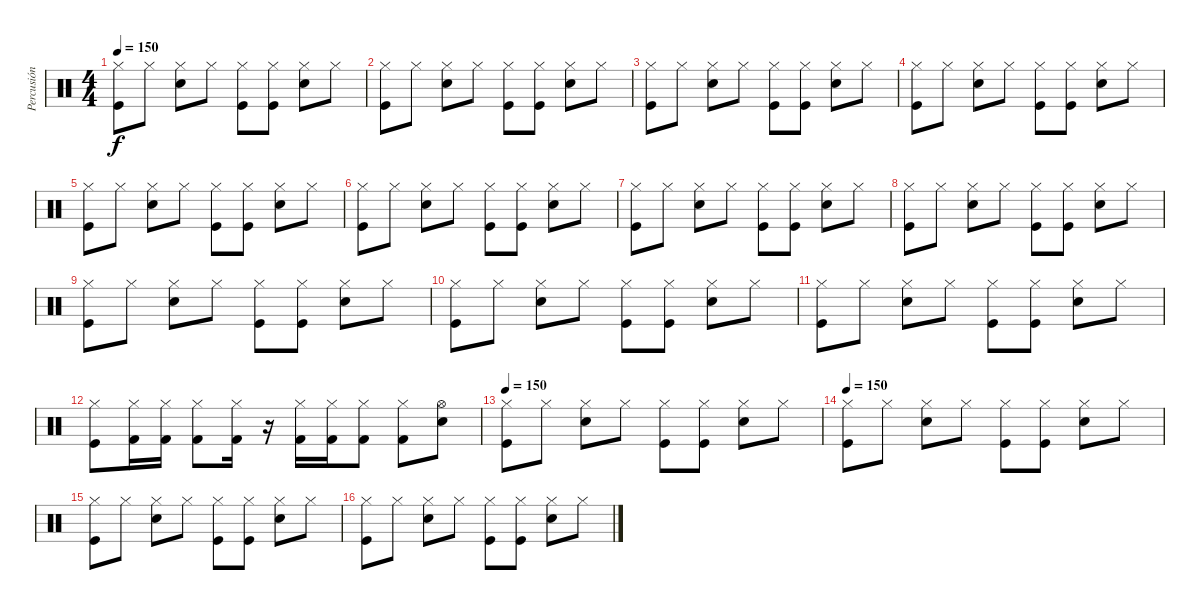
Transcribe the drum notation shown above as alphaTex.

\track ("Percusión" "Percusión") {instrument percussion}
\staff {score}
\articulation defaults
\ts (4 4)
\tempo 150
\clef neutral
\ks c
("Kick (hit)" "Hi-Hat (closed)").8{dy f} "Hi-Hat (closed)".8 ("Snare (hit) 2" "Hi-Hat (closed)").8 "Hi-Hat (closed)".8 ("Kick (hit)" "Hi-Hat (closed)").8 ("Kick (hit)" "Hi-Hat (closed)").8 ("Snare (hit) 2" "Hi-Hat (closed)").8 "Hi-Hat (closed)".8 |
("Kick (hit)" "Hi-Hat (closed)").8 "Hi-Hat (closed)".8 ("Snare (hit) 2" "Hi-Hat (closed)").8 "Hi-Hat (closed)".8 ("Kick (hit)" "Hi-Hat (closed)").8 ("Kick (hit)" "Hi-Hat (closed)").8 ("Snare (hit) 2" "Hi-Hat (closed)").8 "Hi-Hat (closed)".8 |
("Kick (hit)" "Hi-Hat (closed)").8 "Hi-Hat (closed)".8 ("Snare (hit) 2" "Hi-Hat (closed)").8 "Hi-Hat (closed)".8 ("Kick (hit)" "Hi-Hat (closed)").8 ("Kick (hit)" "Hi-Hat (closed)").8 ("Snare (hit) 2" "Hi-Hat (closed)").8 "Hi-Hat (closed)".8 |
("Kick (hit)" "Hi-Hat (closed)").8 "Hi-Hat (closed)".8 ("Snare (hit) 2" "Hi-Hat (closed)").8 "Hi-Hat (closed)".8 ("Kick (hit)" "Hi-Hat (closed)").8 ("Kick (hit)" "Hi-Hat (closed)").8 ("Snare (hit) 2" "Hi-Hat (closed)").8 "Hi-Hat (closed)".8 |
("Kick (hit)" "Hi-Hat (closed)").8 "Hi-Hat (closed)".8 ("Snare (hit) 2" "Hi-Hat (closed)").8 "Hi-Hat (closed)".8 ("Kick (hit)" "Hi-Hat (closed)").8 ("Kick (hit)" "Hi-Hat (closed)").8 ("Snare (hit) 2" "Hi-Hat (closed)").8 "Hi-Hat (closed)".8 |
("Kick (hit)" "Hi-Hat (closed)").8 "Hi-Hat (closed)".8 ("Snare (hit) 2" "Hi-Hat (closed)").8 "Hi-Hat (closed)".8 ("Kick (hit)" "Hi-Hat (closed)").8 ("Kick (hit)" "Hi-Hat (closed)").8 ("Snare (hit) 2" "Hi-Hat (closed)").8 "Hi-Hat (closed)".8 |
("Kick (hit)" "Hi-Hat (closed)").8 "Hi-Hat (closed)".8 ("Snare (hit) 2" "Hi-Hat (closed)").8 "Hi-Hat (closed)".8 ("Kick (hit)" "Hi-Hat (closed)").8 ("Kick (hit)" "Hi-Hat (closed)").8 ("Snare (hit) 2" "Hi-Hat (closed)").8 "Hi-Hat (closed)".8 |
("Kick (hit)" "Hi-Hat (closed)").8 "Hi-Hat (closed)".8 ("Snare (hit) 2" "Hi-Hat (closed)").8 "Hi-Hat (closed)".8 ("Kick (hit)" "Hi-Hat (closed)").8 ("Kick (hit)" "Hi-Hat (closed)").8 ("Snare (hit) 2" "Hi-Hat (closed)").8 "Hi-Hat (closed)".8 |
("Kick (hit)" "Hi-Hat (closed)").8 "Hi-Hat (closed)".8 ("Snare (hit) 2" "Hi-Hat (closed)").8 "Hi-Hat (closed)".8 ("Kick (hit)" "Hi-Hat (closed)").8 ("Kick (hit)" "Hi-Hat (closed)").8 ("Snare (hit) 2" "Hi-Hat (closed)").8 "Hi-Hat (closed)".8 |
("Kick (hit)" "Hi-Hat (closed)").8 "Hi-Hat (closed)".8 ("Snare (hit) 2" "Hi-Hat (closed)").8 "Hi-Hat (closed)".8 ("Kick (hit)" "Hi-Hat (closed)").8 ("Kick (hit)" "Hi-Hat (closed)").8 ("Snare (hit) 2" "Hi-Hat (closed)").8 "Hi-Hat (closed)".8 |
("Kick (hit)" "Hi-Hat (closed)").8 "Hi-Hat (closed)".8 ("Snare (hit) 2" "Hi-Hat (closed)").8 "Hi-Hat (closed)".8 ("Kick (hit)" "Hi-Hat (closed)").8 ("Kick (hit)" "Hi-Hat (closed)").8 ("Snare (hit) 2" "Hi-Hat (closed)").8 "Hi-Hat (closed)".8 |
("Hi-Hat (closed)" "Kick (hit)").8 ("Hi-Hat (closed)" "Kick (hit) 2").16 ("Hi-Hat (closed)" "Kick (hit) 2").16 ("Hi-Hat (closed)" "Kick (hit) 2").8 ("Hi-Hat (closed)" "Kick (hit) 2").16 r.16 ("Hi-Hat (closed)" "Kick (hit) 2").16 ("Hi-Hat (closed)" "Kick (hit) 2").16 ("Hi-Hat (closed)" "Kick (hit) 2").8 ("Hi-Hat (closed)" "Kick (hit) 2").8 ("Hi-Hat (open)" "Snare (hit) 2").8 |
\tempo 150
("Kick (hit)" "Hi-Hat (closed)").8 "Hi-Hat (closed)".8 ("Snare (hit) 2" "Hi-Hat (closed)").8 "Hi-Hat (closed)".8 ("Kick (hit)" "Hi-Hat (closed)").8 ("Kick (hit)" "Hi-Hat (closed)").8 ("Snare (hit) 2" "Hi-Hat (closed)").8 "Hi-Hat (closed)".8 |
\tempo 150
("Kick (hit)" "Hi-Hat (closed)").8 "Hi-Hat (closed)".8 ("Snare (hit) 2" "Hi-Hat (closed)").8 "Hi-Hat (closed)".8 ("Kick (hit)" "Hi-Hat (closed)").8 ("Kick (hit)" "Hi-Hat (closed)").8 ("Snare (hit) 2" "Hi-Hat (closed)").8 "Hi-Hat (closed)".8 |
("Kick (hit)" "Hi-Hat (closed)").8 "Hi-Hat (closed)".8 ("Snare (hit) 2" "Hi-Hat (closed)").8 "Hi-Hat (closed)".8 ("Kick (hit)" "Hi-Hat (closed)").8 ("Kick (hit)" "Hi-Hat (closed)").8 ("Snare (hit) 2" "Hi-Hat (closed)").8 "Hi-Hat (closed)".8 |
("Kick (hit)" "Hi-Hat (closed)").8 "Hi-Hat (closed)".8 ("Snare (hit) 2" "Hi-Hat (closed)").8 "Hi-Hat (closed)".8 ("Kick (hit)" "Hi-Hat (closed)").8 ("Kick (hit)" "Hi-Hat (closed)").8 ("Snare (hit) 2" "Hi-Hat (closed)").8 "Hi-Hat (closed)".8
